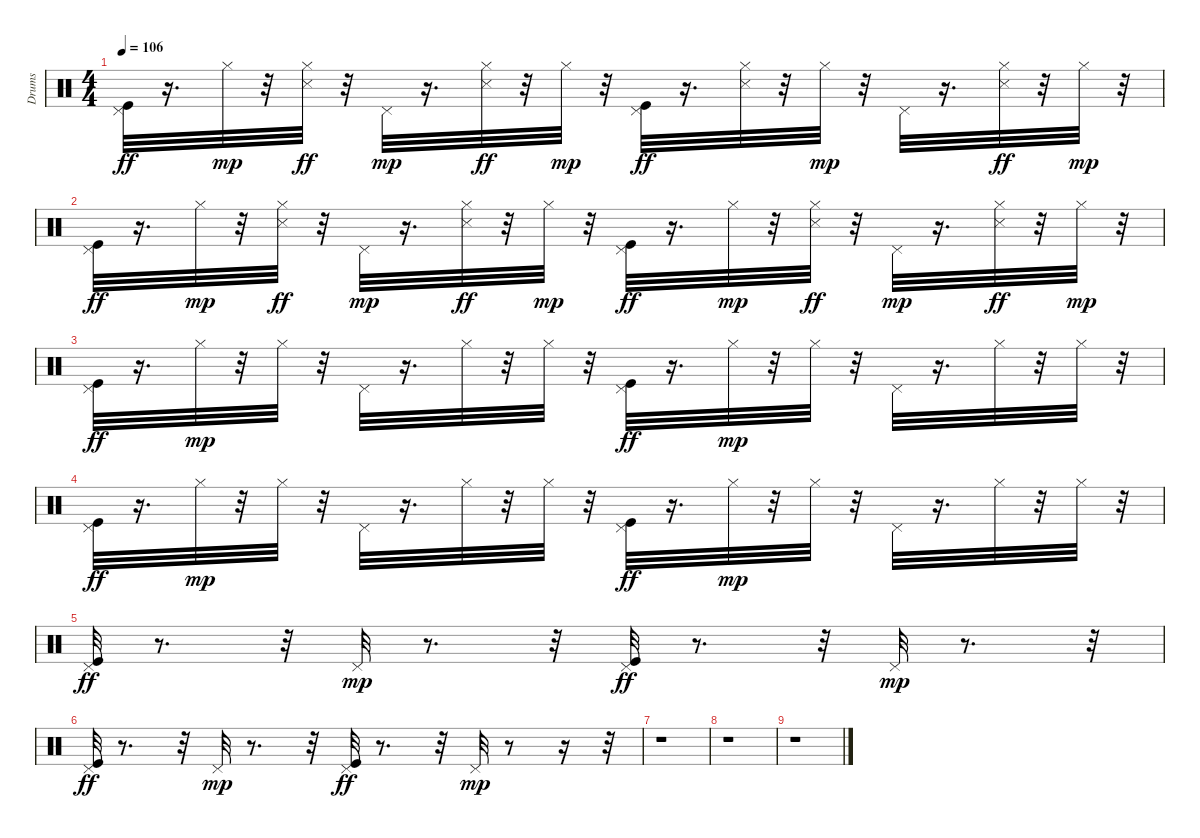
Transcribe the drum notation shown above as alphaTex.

\track ("Drums" "Drums") {instrument percussion}
\staff {score}
\articulation defaults
\ts (4 4)
\tempo 106
\clef neutral
\ks c
("Pedal Hi-Hat (hit)" "Kick (hit)").32{dy ff} r.16{d} "Hi-Hat (closed)".32{dy mp} r.32 ("Hi-Hat (closed)" "Snare (side stick) 3").32{dy ff} r.32 "Pedal Hi-Hat (hit)".32{dy mp} r.16{d} ("Hi-Hat (closed)" "Snare (side stick) 3").32{dy ff} r.32 "Hi-Hat (closed)".32{dy mp} r.32 ("Pedal Hi-Hat (hit)" "Kick (hit)").32{dy ff} r.16{d} ("Hi-Hat (closed)" "Snare (side stick) 3").32 r.32 "Hi-Hat (closed)".32{dy mp} r.32 "Pedal Hi-Hat (hit)".32 r.16{d} ("Hi-Hat (closed)" "Snare (side stick) 3").32{dy ff} r.32 "Hi-Hat (closed)".32{dy mp} r.32 |
("Pedal Hi-Hat (hit)" "Kick (hit)").32{dy ff} r.16{d} "Hi-Hat (closed)".32{dy mp} r.32 ("Hi-Hat (closed)" "Snare (side stick) 3").32{dy ff} r.32 "Pedal Hi-Hat (hit)".32{dy mp} r.16{d} ("Hi-Hat (closed)" "Snare (side stick) 3").32{dy ff} r.32 "Hi-Hat (closed)".32{dy mp} r.32 ("Pedal Hi-Hat (hit)" "Kick (hit)").32{dy ff} r.16{d} "Hi-Hat (closed)".32{dy mp} r.32 ("Hi-Hat (closed)" "Snare (side stick) 3").32{dy ff} r.32 "Pedal Hi-Hat (hit)".32{dy mp} r.16{d} ("Hi-Hat (closed)" "Snare (side stick) 3").32{dy ff} r.32 "Hi-Hat (closed)".32{dy mp} r.32 |
("Pedal Hi-Hat (hit)" "Kick (hit)").32{dy ff} r.16{d} "Hi-Hat (closed)".32{dy mp} r.32 "Hi-Hat (closed)".32 r.32 "Pedal Hi-Hat (hit)".32 r.16{d} "Hi-Hat (closed)".32 r.32 "Hi-Hat (closed)".32 r.32 ("Pedal Hi-Hat (hit)" "Kick (hit)").32{dy ff} r.16{d} "Hi-Hat (closed)".32{dy mp} r.32 "Hi-Hat (closed)".32 r.32 "Pedal Hi-Hat (hit)".32 r.16{d} "Hi-Hat (closed)".32 r.32 "Hi-Hat (closed)".32 r.32 |
("Pedal Hi-Hat (hit)" "Kick (hit)").32{dy ff} r.16{d} "Hi-Hat (closed)".32{dy mp} r.32 "Hi-Hat (closed)".32 r.32 "Pedal Hi-Hat (hit)".32 r.16{d} "Hi-Hat (closed)".32 r.32 "Hi-Hat (closed)".32 r.32 ("Pedal Hi-Hat (hit)" "Kick (hit)").32{dy ff} r.16{d} "Hi-Hat (closed)".32{dy mp} r.32 "Hi-Hat (closed)".32 r.32 "Pedal Hi-Hat (hit)".32 r.16{d} "Hi-Hat (closed)".32 r.32 "Hi-Hat (closed)".32 r.32 |
("Pedal Hi-Hat (hit)" "Kick (hit)").32{dy ff} r.8{d} r.32 "Pedal Hi-Hat (hit)".32{dy mp} r.8{d} r.32 ("Pedal Hi-Hat (hit)" "Kick (hit)").32{dy ff} r.8{d} r.32 "Pedal Hi-Hat (hit)".32{dy mp} r.8{d} r.32 |
("Pedal Hi-Hat (hit)" "Kick (hit)").32{dy ff} r.8{d} r.32 "Pedal Hi-Hat (hit)".32{dy mp} r.8{d} r.32 ("Pedal Hi-Hat (hit)" "Kick (hit)").32{dy ff} r.8{d} r.32 "Pedal Hi-Hat (hit)".32{dy mp} r.8 r.16 r.32 |
r.1 |
r.1 |
r.1
